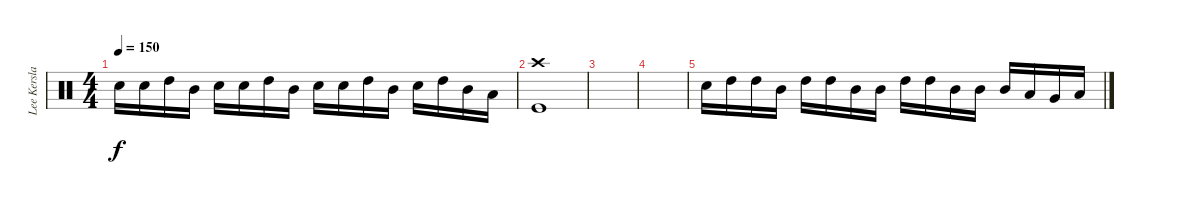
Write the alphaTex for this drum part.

\track ("Lee Kerslake" "Lee Kersla") {instrument percussion}
\staff {score}
\articulation defaults
\ts (4 4)
\tempo 150
\clef neutral
\ks c "Electric Snare (hit)".16{dy f} "Electric Snare (hit)".16 "High Tom (hit)".16 "Mid Tom (hit)".16 "Electric Snare (hit)".16 "Electric Snare (hit)".16 "High Tom (hit)".16 "Mid Tom (hit)".16 "Electric Snare (hit)".16 "Electric Snare (hit)".16 "High Tom (hit)".16 "Mid Tom (hit)".16 "Electric Snare (hit)".16 "High Tom (hit)".16 "Mid Tom (hit)".16 "Low Tom (hit)".16
|
("Crash high (hit)" "Kick (hit)").1 |
|
|
"Electric Snare (hit)".16 "High Tom (hit)".16 "High Tom (hit)".16 "Mid Tom (hit)".16 "High Tom (hit)".16 "High Tom (hit)".16 "Mid Tom (hit)".16 "Mid Tom (hit)".16 "High Tom (hit)".16 "High Tom (hit)".16 "Mid Tom (hit)".16 "Mid Tom (hit)".16 "Mid Tom (hit)".16 "Low Tom (hit)".16 "Very Low Tom (hit)".16 "Low Floor Tom (hit)".16
